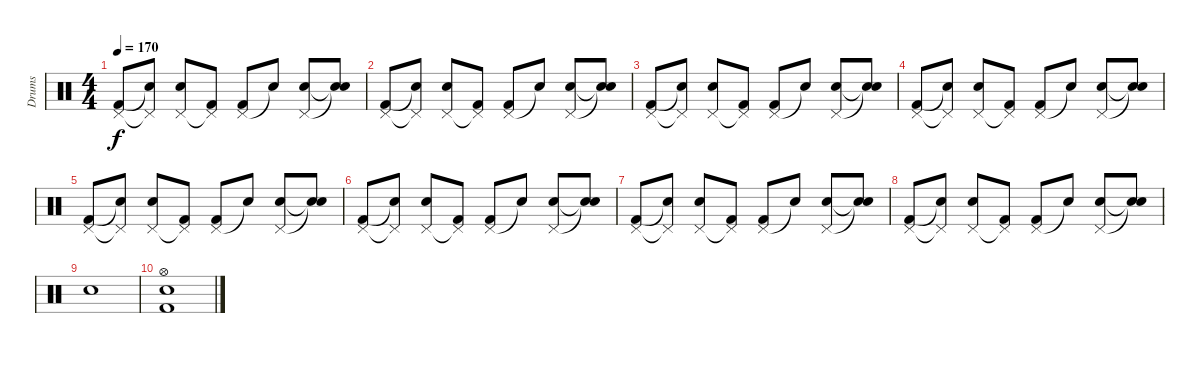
\track ("Drums" "Drums") {instrument percussion}
\staff {score}
\articulation defaults
\ts (4 4)
\tempo 170
\clef neutral
\ks c
("Pedal Hi-Hat (hit)" "Kick (hit) 2").8{dy f} ("Pedal Hi-Hat (hit)"{t} "Snare (hit)"{t}).8 ("Pedal Hi-Hat (hit)" "Snare (hit) 2").8 ("Pedal Hi-Hat (hit)"{t} "Kick (hit) 2").8 ("Pedal Hi-Hat (hit)" "Kick (hit) 2").8 "Snare (hit)"{t}.8 ("Pedal Hi-Hat (hit)" "Snare (hit) 2").8 ("Snare (hit)"{t} "Snare (hit)"{t}).8 |
("Pedal Hi-Hat (hit)" "Kick (hit) 2").8 ("Pedal Hi-Hat (hit)"{t} "Snare (hit)"{t}).8 ("Pedal Hi-Hat (hit)" "Snare (hit) 2").8 ("Pedal Hi-Hat (hit)"{t} "Kick (hit) 2").8 ("Pedal Hi-Hat (hit)" "Kick (hit) 2").8 "Snare (hit)"{t}.8 ("Pedal Hi-Hat (hit)" "Snare (hit) 2").8 ("Snare (hit)"{t} "Snare (hit)"{t}).8 |
("Pedal Hi-Hat (hit)" "Kick (hit) 2").8 ("Pedal Hi-Hat (hit)"{t} "Snare (hit)"{t}).8 ("Pedal Hi-Hat (hit)" "Snare (hit) 2").8 ("Pedal Hi-Hat (hit)"{t} "Kick (hit) 2").8 ("Pedal Hi-Hat (hit)" "Kick (hit) 2").8 "Snare (hit)"{t}.8 ("Pedal Hi-Hat (hit)" "Snare (hit) 2").8 ("Snare (hit)"{t} "Snare (hit)"{t}).8 |
("Pedal Hi-Hat (hit)" "Kick (hit) 2").8 ("Pedal Hi-Hat (hit)"{t} "Snare (hit)"{t}).8 ("Pedal Hi-Hat (hit)" "Snare (hit) 2").8 ("Pedal Hi-Hat (hit)"{t} "Kick (hit) 2").8 ("Pedal Hi-Hat (hit)" "Kick (hit) 2").8 "Snare (hit)"{t}.8 ("Pedal Hi-Hat (hit)" "Snare (hit) 2").8 ("Snare (hit)"{t} "Snare (hit)"{t}).8 |
("Pedal Hi-Hat (hit)" "Kick (hit) 2").8 ("Pedal Hi-Hat (hit)"{t} "Snare (hit)"{t}).8 ("Pedal Hi-Hat (hit)" "Snare (hit) 2").8 ("Pedal Hi-Hat (hit)"{t} "Kick (hit) 2").8 ("Pedal Hi-Hat (hit)" "Kick (hit) 2").8 "Snare (hit)"{t}.8 ("Pedal Hi-Hat (hit)" "Snare (hit) 2").8 ("Snare (hit)"{t} "Snare (hit)"{t}).8 |
("Pedal Hi-Hat (hit)" "Kick (hit) 2").8 ("Pedal Hi-Hat (hit)"{t} "Snare (hit)"{t}).8 ("Pedal Hi-Hat (hit)" "Snare (hit) 2").8 ("Pedal Hi-Hat (hit)"{t} "Kick (hit) 2").8 ("Pedal Hi-Hat (hit)" "Kick (hit) 2").8 "Snare (hit)"{t}.8 ("Pedal Hi-Hat (hit)" "Snare (hit) 2").8 ("Snare (hit)"{t} "Snare (hit)"{t}).8 |
("Pedal Hi-Hat (hit)" "Kick (hit) 2").8 ("Pedal Hi-Hat (hit)"{t} "Snare (hit)"{t}).8 ("Pedal Hi-Hat (hit)" "Snare (hit) 2").8 ("Pedal Hi-Hat (hit)"{t} "Kick (hit) 2").8 ("Pedal Hi-Hat (hit)" "Kick (hit) 2").8 "Snare (hit)"{t}.8 ("Pedal Hi-Hat (hit)" "Snare (hit) 2").8 ("Snare (hit)"{t} "Snare (hit)"{t}).8 |
("Pedal Hi-Hat (hit)" "Kick (hit) 2").8 ("Pedal Hi-Hat (hit)"{t} "Snare (hit)"{t}).8 ("Pedal Hi-Hat (hit)" "Snare (hit) 2").8 ("Pedal Hi-Hat (hit)"{t} "Kick (hit) 2").8 ("Pedal Hi-Hat (hit)" "Kick (hit) 2").8 "Snare (hit)"{t}.8 ("Pedal Hi-Hat (hit)" "Snare (hit) 2").8 ("Snare (hit)"{t} "Snare (hit)"{t}).8 |
"Snare (hit) 2".1 |
("Hi-Hat (open)" "Kick (hit) 2" "Snare (hit) 2").1
